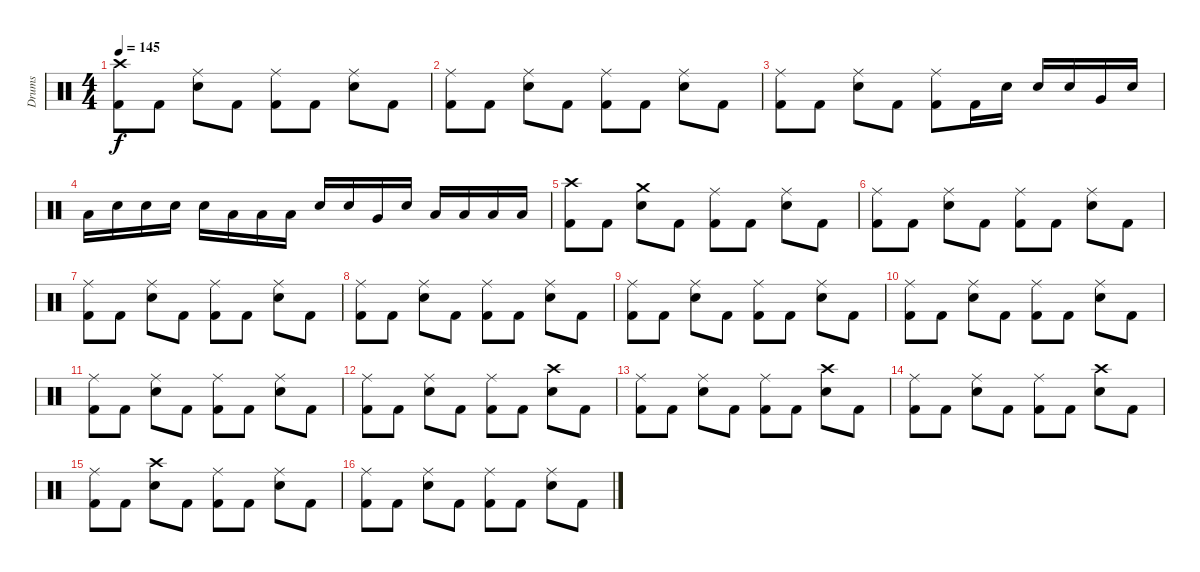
\track ("Drums" "Drums") {instrument percussion}
\staff {score}
\articulation defaults
\ts (4 4)
\tempo 145
\clef neutral
\ks c
("Crash high (hit)" "Kick (hit) 2").8{dy f} "Kick (hit) 2".8 ("Ride (middle)" "Snare (hit) 2").8 "Kick (hit) 2".8 ("Ride (middle)" "Kick (hit) 2").8 "Kick (hit) 2".8 ("Ride (middle)" "Snare (hit) 2").8 "Kick (hit) 2".8 |
("Ride (middle)" "Kick (hit) 2").8 "Kick (hit) 2".8 ("Ride (middle)" "Snare (hit) 2").8 "Kick (hit) 2".8 ("Ride (middle)" "Kick (hit) 2").8 "Kick (hit) 2".8 ("Ride (middle)" "Snare (hit) 2").8 "Kick (hit) 2".8 |
("Ride (middle)" "Kick (hit) 2").8 "Kick (hit) 2".8 ("Ride (middle)" "Snare (hit) 2").8 "Kick (hit) 2".8 ("Ride (middle)" "Kick (hit) 2").8 "Kick (hit) 2".16 "Snare (hit) 2".16 "Snare (hit) 2".16 "Snare (hit) 2".16 "Very Low Tom (hit)".16 "Snare (hit) 2".16 |
"Low Tom (hit)".16 "Snare (hit) 2".16 "Snare (hit) 2".16 "Snare (hit) 2".16 "Snare (hit) 2".16 "Low Tom (hit)".16 "Low Tom (hit)".16 "Low Tom (hit)".16 "Snare (hit) 2".16 "Snare (hit) 2".16 "Very Low Tom (hit)".16 "Snare (hit) 2".16 "Low Tom (hit)".16 "Low Tom (hit)".16 "Low Tom (hit)".16 "Low Tom (hit)".16 |
("Crash high (hit)" "Kick (hit) 2").8 "Kick (hit) 2".8 ("Crash medium (hit)" "Snare (hit) 2").8 "Kick (hit) 2".8 ("Ride (middle)" "Kick (hit) 2").8 "Kick (hit) 2".8 ("Ride (middle)" "Snare (hit) 2").8 "Kick (hit) 2".8 |
("Ride (middle)" "Kick (hit) 2").8 "Kick (hit) 2".8 ("Ride (middle)" "Snare (hit) 2").8 "Kick (hit) 2".8 ("Ride (middle)" "Kick (hit) 2").8 "Kick (hit) 2".8 ("Ride (middle)" "Snare (hit) 2").8 "Kick (hit) 2".8 |
("Ride (middle)" "Kick (hit) 2").8 "Kick (hit) 2".8 ("Ride (middle)" "Snare (hit) 2").8 "Kick (hit) 2".8 ("Ride (middle)" "Kick (hit) 2").8 "Kick (hit) 2".8 ("Ride (middle)" "Snare (hit) 2").8 "Kick (hit) 2".8 |
("Ride (middle)" "Kick (hit) 2").8 "Kick (hit) 2".8 ("Ride (middle)" "Snare (hit) 2").8 "Kick (hit) 2".8 ("Ride (middle)" "Kick (hit) 2").8 "Kick (hit) 2".8 ("Ride (middle)" "Snare (hit) 2").8 "Kick (hit) 2".8 |
("Ride (middle)" "Kick (hit) 2").8 "Kick (hit) 2".8 ("Ride (middle)" "Snare (hit) 2").8 "Kick (hit) 2".8 ("Ride (middle)" "Kick (hit) 2").8 "Kick (hit) 2".8 ("Ride (middle)" "Snare (hit) 2").8 "Kick (hit) 2".8 |
("Ride (middle)" "Kick (hit) 2").8 "Kick (hit) 2".8 ("Ride (middle)" "Snare (hit) 2").8 "Kick (hit) 2".8 ("Ride (middle)" "Kick (hit) 2").8 "Kick (hit) 2".8 ("Ride (middle)" "Snare (hit) 2").8 "Kick (hit) 2".8 |
("Ride (middle)" "Kick (hit) 2").8 "Kick (hit) 2".8 ("Ride (middle)" "Snare (hit) 2").8 "Kick (hit) 2".8 ("Ride (middle)" "Kick (hit) 2").8 "Kick (hit) 2".8 ("Ride (middle)" "Snare (hit) 2").8 "Kick (hit) 2".8 |
("Ride (middle)" "Kick (hit) 2").8 "Kick (hit) 2".8 ("Ride (middle)" "Snare (hit) 2").8 "Kick (hit) 2".8 ("Ride (middle)" "Kick (hit) 2").8 "Kick (hit) 2".8 ("Crash high (hit)" "Snare (hit) 2").8 "Kick (hit) 2".8 |
("Ride (middle)" "Kick (hit) 2").8 "Kick (hit) 2".8 ("Ride (middle)" "Snare (hit) 2").8 "Kick (hit) 2".8 ("Ride (middle)" "Kick (hit) 2").8 "Kick (hit) 2".8 ("Crash high (hit)" "Snare (hit) 2").8 "Kick (hit) 2".8 |
("Ride (middle)" "Kick (hit) 2").8 "Kick (hit) 2".8 ("Ride (middle)" "Snare (hit) 2").8 "Kick (hit) 2".8 ("Ride (middle)" "Kick (hit) 2").8 "Kick (hit) 2".8 ("Crash high (hit)" "Snare (hit) 2").8 "Kick (hit) 2".8 |
("Ride (middle)" "Kick (hit) 2").8 "Kick (hit) 2".8 ("Crash high (hit)" "Snare (hit) 2").8 "Kick (hit) 2".8 ("Ride (middle)" "Kick (hit) 2").8 "Kick (hit) 2".8 ("Ride (middle)" "Snare (hit) 2").8 "Kick (hit) 2".8 |
("Ride (middle)" "Kick (hit) 2").8 "Kick (hit) 2".8 ("Ride (middle)" "Snare (hit) 2").8 "Kick (hit) 2".8 ("Ride (middle)" "Kick (hit) 2").8 "Kick (hit) 2".8 ("Ride (middle)" "Snare (hit) 2").8 "Kick (hit) 2".8
